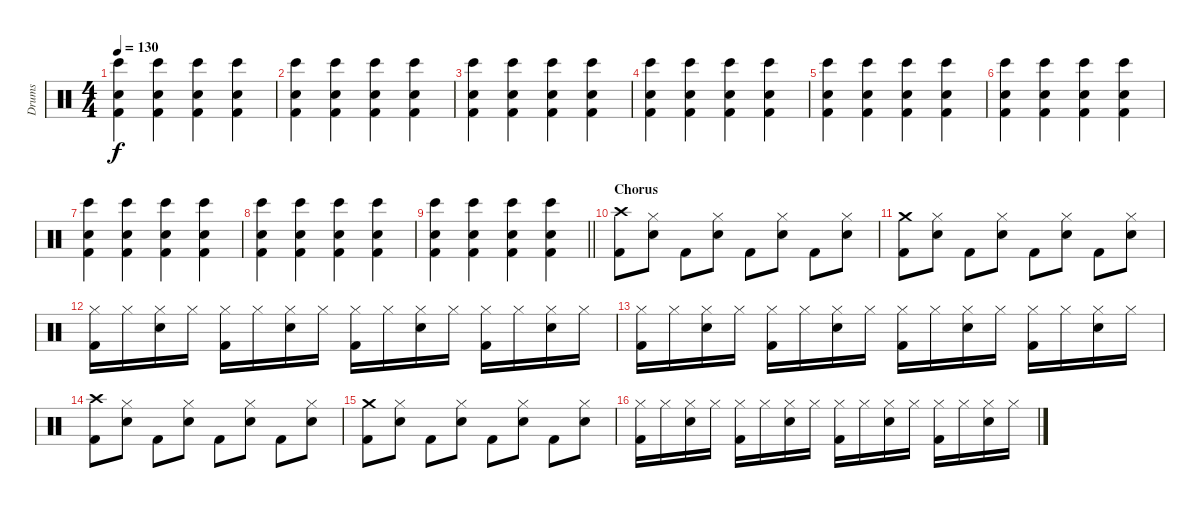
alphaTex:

\track ("Drums" "Drums") {instrument percussion}
\staff {score}
\articulation defaults
\ts (4 4)
\tempo 130
\clef neutral
\ks c
("Electric Snare (hit)" "Kick (hit) 2" "Bongo High (hit)").4{dy f} ("Electric Snare (hit)" "Kick (hit) 2" "Bongo High (hit)").4 ("Electric Snare (hit)" "Kick (hit) 2" "Bongo High (hit)").4 ("Electric Snare (hit)" "Kick (hit) 2" "Bongo High (hit)").4 |
("Electric Snare (hit)" "Kick (hit) 2" "Bongo High (hit)").4 ("Electric Snare (hit)" "Kick (hit) 2" "Bongo High (hit)").4 ("Electric Snare (hit)" "Kick (hit) 2" "Bongo High (hit)").4 ("Electric Snare (hit)" "Kick (hit) 2" "Bongo High (hit)").4 |
("Electric Snare (hit)" "Kick (hit) 2" "Bongo High (hit)").4 ("Electric Snare (hit)" "Kick (hit) 2" "Bongo High (hit)").4 ("Electric Snare (hit)" "Kick (hit) 2" "Bongo High (hit)").4 ("Electric Snare (hit)" "Kick (hit) 2" "Bongo High (hit)").4 |
("Electric Snare (hit)" "Kick (hit) 2" "Bongo High (hit)").4 ("Electric Snare (hit)" "Kick (hit) 2" "Bongo High (hit)").4 ("Electric Snare (hit)" "Kick (hit) 2" "Bongo High (hit)").4 ("Electric Snare (hit)" "Kick (hit) 2" "Bongo High (hit)").4 |
("Electric Snare (hit)" "Kick (hit) 2" "Bongo High (hit)").4 ("Electric Snare (hit)" "Kick (hit) 2" "Bongo High (hit)").4 ("Electric Snare (hit)" "Kick (hit) 2" "Bongo High (hit)").4 ("Electric Snare (hit)" "Kick (hit) 2" "Bongo High (hit)").4 |
("Electric Snare (hit)" "Kick (hit) 2" "Bongo High (hit)").4 ("Electric Snare (hit)" "Kick (hit) 2" "Bongo High (hit)").4 ("Electric Snare (hit)" "Kick (hit) 2" "Bongo High (hit)").4 ("Electric Snare (hit)" "Kick (hit) 2" "Bongo High (hit)").4 |
("Electric Snare (hit)" "Kick (hit) 2" "Bongo High (hit)").4 ("Electric Snare (hit)" "Kick (hit) 2" "Bongo High (hit)").4 ("Electric Snare (hit)" "Kick (hit) 2" "Bongo High (hit)").4 ("Electric Snare (hit)" "Kick (hit) 2" "Bongo High (hit)").4 |
("Electric Snare (hit)" "Kick (hit) 2" "Bongo High (hit)").4 ("Electric Snare (hit)" "Kick (hit) 2" "Bongo High (hit)").4 ("Electric Snare (hit)" "Kick (hit) 2" "Bongo High (hit)").4 ("Electric Snare (hit)" "Kick (hit) 2" "Bongo High (hit)").4 |
\barLineRight lightlight
("Electric Snare (hit)" "Kick (hit) 2" "Bongo High (hit)").4 ("Electric Snare (hit)" "Kick (hit) 2" "Bongo High (hit)").4 ("Electric Snare (hit)" "Kick (hit) 2" "Bongo High (hit)").4 ("Electric Snare (hit)" "Kick (hit) 2" "Bongo High (hit)").4 |
\section ("" "Chorus")
("Crash high (hit)" "Kick (hit) 2").8 ("Electric Snare (hit)" "Hi-Hat (closed)").8 "Kick (hit) 2".8 ("Electric Snare (hit)" "Hi-Hat (closed)").8 "Kick (hit) 2".8 ("Electric Snare (hit)" "Hi-Hat (closed)").8 "Kick (hit) 2".8 ("Electric Snare (hit)" "Hi-Hat (closed)").8 |
("Crash medium (hit)" "Kick (hit) 2").8 ("Electric Snare (hit)" "Hi-Hat (closed)").8 "Kick (hit) 2".8 ("Electric Snare (hit)" "Hi-Hat (closed)").8 "Kick (hit) 2".8 ("Electric Snare (hit)" "Hi-Hat (closed)").8 "Kick (hit) 2".8 ("Electric Snare (hit)" "Hi-Hat (closed)").8 |
("Hi-Hat (closed)" "Kick (hit) 2").16 "Hi-Hat (closed)".16 ("Hi-Hat (closed)" "Electric Snare (hit)").16 "Hi-Hat (closed)".16 ("Hi-Hat (closed)" "Kick (hit) 2").16 "Hi-Hat (closed)".16 ("Hi-Hat (closed)" "Electric Snare (hit)").16 "Hi-Hat (closed)".16 ("Hi-Hat (closed)" "Kick (hit) 2").16 "Hi-Hat (closed)".16 ("Hi-Hat (closed)" "Electric Snare (hit)").16 "Hi-Hat (closed)".16 ("Hi-Hat (closed)" "Kick (hit) 2").16 "Hi-Hat (closed)".16 ("Hi-Hat (closed)" "Electric Snare (hit)").16 "Hi-Hat (closed)".16 |
("Hi-Hat (closed)" "Kick (hit) 2").16 "Hi-Hat (closed)".16 ("Hi-Hat (closed)" "Electric Snare (hit)").16 "Hi-Hat (closed)".16 ("Hi-Hat (closed)" "Kick (hit) 2").16 "Hi-Hat (closed)".16 ("Hi-Hat (closed)" "Electric Snare (hit)").16 "Hi-Hat (closed)".16 ("Hi-Hat (closed)" "Kick (hit) 2").16 "Hi-Hat (closed)".16 ("Hi-Hat (closed)" "Electric Snare (hit)").16 "Hi-Hat (closed)".16 ("Hi-Hat (closed)" "Kick (hit) 2").16 "Hi-Hat (closed)".16 ("Hi-Hat (closed)" "Electric Snare (hit)").16 "Hi-Hat (closed)".16 |
("Crash high (hit)" "Kick (hit) 2").8 ("Electric Snare (hit)" "Hi-Hat (closed)").8 "Kick (hit) 2".8 ("Electric Snare (hit)" "Hi-Hat (closed)").8 "Kick (hit) 2".8 ("Electric Snare (hit)" "Hi-Hat (closed)").8 "Kick (hit) 2".8 ("Electric Snare (hit)" "Hi-Hat (closed)").8 |
("Crash medium (hit)" "Kick (hit) 2").8 ("Electric Snare (hit)" "Hi-Hat (closed)").8 "Kick (hit) 2".8 ("Electric Snare (hit)" "Hi-Hat (closed)").8 "Kick (hit) 2".8 ("Electric Snare (hit)" "Hi-Hat (closed)").8 "Kick (hit) 2".8 ("Electric Snare (hit)" "Hi-Hat (closed)").8 |
("Hi-Hat (closed)" "Kick (hit) 2").16 "Hi-Hat (closed)".16 ("Hi-Hat (closed)" "Electric Snare (hit)").16 "Hi-Hat (closed)".16 ("Hi-Hat (closed)" "Kick (hit) 2").16 "Hi-Hat (closed)".16 ("Hi-Hat (closed)" "Electric Snare (hit)").16 "Hi-Hat (closed)".16 ("Hi-Hat (closed)" "Kick (hit) 2").16 "Hi-Hat (closed)".16 ("Hi-Hat (closed)" "Electric Snare (hit)").16 "Hi-Hat (closed)".16 ("Hi-Hat (closed)" "Kick (hit) 2").16 "Hi-Hat (closed)".16 ("Hi-Hat (closed)" "Electric Snare (hit)").16 "Hi-Hat (closed)".16
